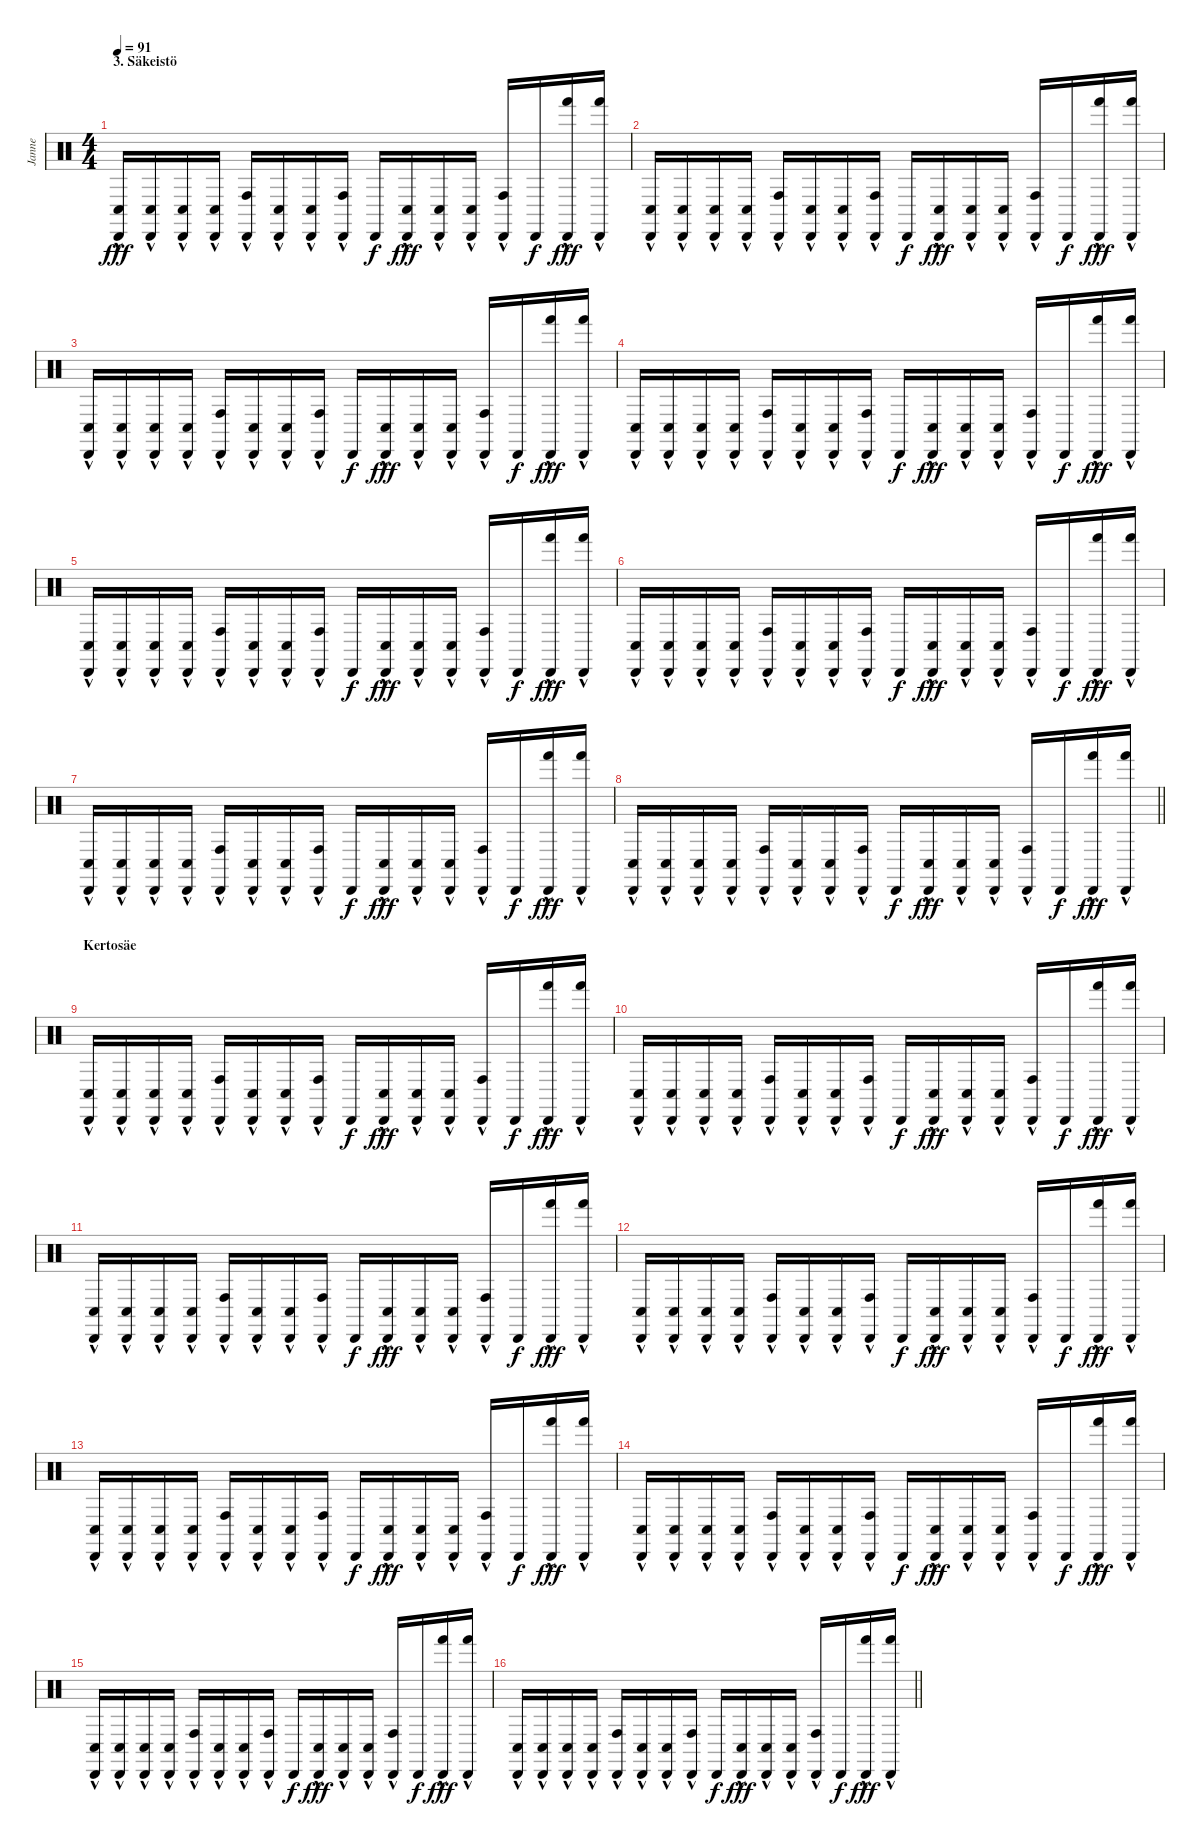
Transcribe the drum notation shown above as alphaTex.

\track ("Janne" "Janne") {instrument percussion}
\staff {score}
\articulation defaults
\ts (4 4)
\section ("" "3. Säkeistö")
\tempo 91
\clef neutral
\ks c
("Cabasa (hit)" "Conga low (hit)"{hac}).16{dy fff} ("Cabasa (hit)" "Conga low (hit)"{hac}).16 ("Cabasa (hit)" "Conga low (hit)"{hac}).16 ("Cabasa (hit)" "Conga low (hit)"{hac}).16 ("Cabasa (hit)" "Conga high (hit)"{hac}).16 ("Cabasa (hit)" "Conga low (hit)"{hac}).16 ("Cabasa (hit)" "Conga low (hit)"{hac}).16 ("Cabasa (hit)" "Conga high (hit)"{hac}).16 "Cabasa (hit)".16{dy f} ("Cabasa (hit)" "Conga low (hit)"{hac}).16{dy fff} ("Cabasa (hit)" "Conga low (hit)"{hac}).16 ("Cabasa (hit)" "Conga low (hit)"{hac}).16 ("Cabasa (hit)" "Conga high (hit)"{hac}).16 "Cabasa (hit)".16{dy f} ("Cabasa (hit)" "Hand (hit)"{hac}).16{dy fff} ("Cabasa (hit)" "Hand (hit)"{hac}).16 |
("Cabasa (hit)" "Conga low (hit)"{hac}).16 ("Cabasa (hit)" "Conga low (hit)"{hac}).16 ("Cabasa (hit)" "Conga low (hit)"{hac}).16 ("Cabasa (hit)" "Conga low (hit)"{hac}).16 ("Cabasa (hit)" "Conga high (hit)"{hac}).16 ("Cabasa (hit)" "Conga low (hit)"{hac}).16 ("Cabasa (hit)" "Conga low (hit)"{hac}).16 ("Cabasa (hit)" "Conga high (hit)"{hac}).16 "Cabasa (hit)".16{dy f} ("Cabasa (hit)" "Conga low (hit)"{hac}).16{dy fff} ("Cabasa (hit)" "Conga low (hit)"{hac}).16 ("Cabasa (hit)" "Conga low (hit)"{hac}).16 ("Cabasa (hit)" "Conga high (hit)"{hac}).16 "Cabasa (hit)".16{dy f} ("Cabasa (hit)" "Hand (hit)"{hac}).16{dy fff} ("Cabasa (hit)" "Hand (hit)"{hac}).16 |
("Cabasa (hit)" "Conga low (hit)"{hac}).16 ("Cabasa (hit)" "Conga low (hit)"{hac}).16 ("Cabasa (hit)" "Conga low (hit)"{hac}).16 ("Cabasa (hit)" "Conga low (hit)"{hac}).16 ("Cabasa (hit)" "Conga high (hit)"{hac}).16 ("Cabasa (hit)" "Conga low (hit)"{hac}).16 ("Cabasa (hit)" "Conga low (hit)"{hac}).16 ("Cabasa (hit)" "Conga high (hit)"{hac}).16 "Cabasa (hit)".16{dy f} ("Cabasa (hit)" "Conga low (hit)"{hac}).16{dy fff} ("Cabasa (hit)" "Conga low (hit)"{hac}).16 ("Cabasa (hit)" "Conga low (hit)"{hac}).16 ("Cabasa (hit)" "Conga high (hit)"{hac}).16 "Cabasa (hit)".16{dy f} ("Cabasa (hit)" "Hand (hit)"{hac}).16{dy fff} ("Cabasa (hit)" "Hand (hit)"{hac}).16 |
("Cabasa (hit)" "Conga low (hit)"{hac}).16 ("Cabasa (hit)" "Conga low (hit)"{hac}).16 ("Cabasa (hit)" "Conga low (hit)"{hac}).16 ("Cabasa (hit)" "Conga low (hit)"{hac}).16 ("Cabasa (hit)" "Conga high (hit)"{hac}).16 ("Cabasa (hit)" "Conga low (hit)"{hac}).16 ("Cabasa (hit)" "Conga low (hit)"{hac}).16 ("Cabasa (hit)" "Conga high (hit)"{hac}).16 "Cabasa (hit)".16{dy f} ("Cabasa (hit)" "Conga low (hit)"{hac}).16{dy fff} ("Cabasa (hit)" "Conga low (hit)"{hac}).16 ("Cabasa (hit)" "Conga low (hit)"{hac}).16 ("Cabasa (hit)" "Conga high (hit)"{hac}).16 "Cabasa (hit)".16{dy f} ("Cabasa (hit)" "Hand (hit)"{hac}).16{dy fff} ("Cabasa (hit)" "Hand (hit)"{hac}).16 |
("Cabasa (hit)" "Conga low (hit)"{hac}).16 ("Cabasa (hit)" "Conga low (hit)"{hac}).16 ("Cabasa (hit)" "Conga low (hit)"{hac}).16 ("Cabasa (hit)" "Conga low (hit)"{hac}).16 ("Cabasa (hit)" "Conga high (hit)"{hac}).16 ("Cabasa (hit)" "Conga low (hit)"{hac}).16 ("Cabasa (hit)" "Conga low (hit)"{hac}).16 ("Cabasa (hit)" "Conga high (hit)"{hac}).16 "Cabasa (hit)".16{dy f} ("Cabasa (hit)" "Conga low (hit)"{hac}).16{dy fff} ("Cabasa (hit)" "Conga low (hit)"{hac}).16 ("Cabasa (hit)" "Conga low (hit)"{hac}).16 ("Cabasa (hit)" "Conga high (hit)"{hac}).16 "Cabasa (hit)".16{dy f} ("Cabasa (hit)" "Hand (hit)"{hac}).16{dy fff} ("Cabasa (hit)" "Hand (hit)"{hac}).16 |
("Cabasa (hit)" "Conga low (hit)"{hac}).16 ("Cabasa (hit)" "Conga low (hit)"{hac}).16 ("Cabasa (hit)" "Conga low (hit)"{hac}).16 ("Cabasa (hit)" "Conga low (hit)"{hac}).16 ("Cabasa (hit)" "Conga high (hit)"{hac}).16 ("Cabasa (hit)" "Conga low (hit)"{hac}).16 ("Cabasa (hit)" "Conga low (hit)"{hac}).16 ("Cabasa (hit)" "Conga high (hit)"{hac}).16 "Cabasa (hit)".16{dy f} ("Cabasa (hit)" "Conga low (hit)"{hac}).16{dy fff} ("Cabasa (hit)" "Conga low (hit)"{hac}).16 ("Cabasa (hit)" "Conga low (hit)"{hac}).16 ("Cabasa (hit)" "Conga high (hit)"{hac}).16 "Cabasa (hit)".16{dy f} ("Cabasa (hit)" "Hand (hit)"{hac}).16{dy fff} ("Cabasa (hit)" "Hand (hit)"{hac}).16 |
("Cabasa (hit)" "Conga low (hit)"{hac}).16 ("Cabasa (hit)" "Conga low (hit)"{hac}).16 ("Cabasa (hit)" "Conga low (hit)"{hac}).16 ("Cabasa (hit)" "Conga low (hit)"{hac}).16 ("Cabasa (hit)" "Conga high (hit)"{hac}).16 ("Cabasa (hit)" "Conga low (hit)"{hac}).16 ("Cabasa (hit)" "Conga low (hit)"{hac}).16 ("Cabasa (hit)" "Conga high (hit)"{hac}).16 "Cabasa (hit)".16{dy f} ("Cabasa (hit)" "Conga low (hit)"{hac}).16{dy fff} ("Cabasa (hit)" "Conga low (hit)"{hac}).16 ("Cabasa (hit)" "Conga low (hit)"{hac}).16 ("Cabasa (hit)" "Conga high (hit)"{hac}).16 "Cabasa (hit)".16{dy f} ("Cabasa (hit)" "Hand (hit)"{hac}).16{dy fff} ("Cabasa (hit)" "Hand (hit)"{hac}).16 |
\barLineRight lightlight
("Cabasa (hit)" "Conga low (hit)"{hac}).16 ("Cabasa (hit)" "Conga low (hit)"{hac}).16 ("Cabasa (hit)" "Conga low (hit)"{hac}).16 ("Cabasa (hit)" "Conga low (hit)"{hac}).16 ("Cabasa (hit)" "Conga high (hit)"{hac}).16 ("Cabasa (hit)" "Conga low (hit)"{hac}).16 ("Cabasa (hit)" "Conga low (hit)"{hac}).16 ("Cabasa (hit)" "Conga high (hit)"{hac}).16 "Cabasa (hit)".16{dy f} ("Cabasa (hit)" "Conga low (hit)"{hac}).16{dy fff} ("Cabasa (hit)" "Conga low (hit)"{hac}).16 ("Cabasa (hit)" "Conga low (hit)"{hac}).16 ("Cabasa (hit)" "Conga high (hit)"{hac}).16 "Cabasa (hit)".16{dy f} ("Cabasa (hit)" "Hand (hit)"{hac}).16{dy fff} ("Cabasa (hit)" "Hand (hit)"{hac}).16 |
\section ("" "Kertosäe")
("Cabasa (hit)" "Conga low (hit)"{hac}).16 ("Cabasa (hit)" "Conga low (hit)"{hac}).16 ("Cabasa (hit)" "Conga low (hit)"{hac}).16 ("Cabasa (hit)" "Conga low (hit)"{hac}).16 ("Cabasa (hit)" "Conga high (hit)"{hac}).16 ("Cabasa (hit)" "Conga low (hit)"{hac}).16 ("Cabasa (hit)" "Conga low (hit)"{hac}).16 ("Cabasa (hit)" "Conga high (hit)"{hac}).16 "Cabasa (hit)".16{dy f} ("Cabasa (hit)" "Conga low (hit)"{hac}).16{dy fff} ("Cabasa (hit)" "Conga low (hit)"{hac}).16 ("Cabasa (hit)" "Conga low (hit)"{hac}).16 ("Cabasa (hit)" "Conga high (hit)"{hac}).16 "Cabasa (hit)".16{dy f} ("Cabasa (hit)" "Hand (hit)"{hac}).16{dy fff} ("Cabasa (hit)" "Hand (hit)"{hac}).16 |
("Cabasa (hit)" "Conga low (hit)"{hac}).16 ("Cabasa (hit)" "Conga low (hit)"{hac}).16 ("Cabasa (hit)" "Conga low (hit)"{hac}).16 ("Cabasa (hit)" "Conga low (hit)"{hac}).16 ("Cabasa (hit)" "Conga high (hit)"{hac}).16 ("Cabasa (hit)" "Conga low (hit)"{hac}).16 ("Cabasa (hit)" "Conga low (hit)"{hac}).16 ("Cabasa (hit)" "Conga high (hit)"{hac}).16 "Cabasa (hit)".16{dy f} ("Cabasa (hit)" "Conga low (hit)"{hac}).16{dy fff} ("Cabasa (hit)" "Conga low (hit)"{hac}).16 ("Cabasa (hit)" "Conga low (hit)"{hac}).16 ("Cabasa (hit)" "Conga high (hit)"{hac}).16 "Cabasa (hit)".16{dy f} ("Cabasa (hit)" "Hand (hit)"{hac}).16{dy fff} ("Cabasa (hit)" "Hand (hit)"{hac}).16 |
("Cabasa (hit)" "Conga low (hit)"{hac}).16 ("Cabasa (hit)" "Conga low (hit)"{hac}).16 ("Cabasa (hit)" "Conga low (hit)"{hac}).16 ("Cabasa (hit)" "Conga low (hit)"{hac}).16 ("Cabasa (hit)" "Conga high (hit)"{hac}).16 ("Cabasa (hit)" "Conga low (hit)"{hac}).16 ("Cabasa (hit)" "Conga low (hit)"{hac}).16 ("Cabasa (hit)" "Conga high (hit)"{hac}).16 "Cabasa (hit)".16{dy f} ("Cabasa (hit)" "Conga low (hit)"{hac}).16{dy fff} ("Cabasa (hit)" "Conga low (hit)"{hac}).16 ("Cabasa (hit)" "Conga low (hit)"{hac}).16 ("Cabasa (hit)" "Conga high (hit)"{hac}).16 "Cabasa (hit)".16{dy f} ("Cabasa (hit)" "Hand (hit)"{hac}).16{dy fff} ("Cabasa (hit)" "Hand (hit)"{hac}).16 |
("Cabasa (hit)" "Conga low (hit)"{hac}).16 ("Cabasa (hit)" "Conga low (hit)"{hac}).16 ("Cabasa (hit)" "Conga low (hit)"{hac}).16 ("Cabasa (hit)" "Conga low (hit)"{hac}).16 ("Cabasa (hit)" "Conga high (hit)"{hac}).16 ("Cabasa (hit)" "Conga low (hit)"{hac}).16 ("Cabasa (hit)" "Conga low (hit)"{hac}).16 ("Cabasa (hit)" "Conga high (hit)"{hac}).16 "Cabasa (hit)".16{dy f} ("Cabasa (hit)" "Conga low (hit)"{hac}).16{dy fff} ("Cabasa (hit)" "Conga low (hit)"{hac}).16 ("Cabasa (hit)" "Conga low (hit)"{hac}).16 ("Cabasa (hit)" "Conga high (hit)"{hac}).16 "Cabasa (hit)".16{dy f} ("Cabasa (hit)" "Hand (hit)"{hac}).16{dy fff} ("Cabasa (hit)" "Hand (hit)"{hac}).16 |
("Cabasa (hit)" "Conga low (hit)"{hac}).16 ("Cabasa (hit)" "Conga low (hit)"{hac}).16 ("Cabasa (hit)" "Conga low (hit)"{hac}).16 ("Cabasa (hit)" "Conga low (hit)"{hac}).16 ("Cabasa (hit)" "Conga high (hit)"{hac}).16 ("Cabasa (hit)" "Conga low (hit)"{hac}).16 ("Cabasa (hit)" "Conga low (hit)"{hac}).16 ("Cabasa (hit)" "Conga high (hit)"{hac}).16 "Cabasa (hit)".16{dy f} ("Cabasa (hit)" "Conga low (hit)"{hac}).16{dy fff} ("Cabasa (hit)" "Conga low (hit)"{hac}).16 ("Cabasa (hit)" "Conga low (hit)"{hac}).16 ("Cabasa (hit)" "Conga high (hit)"{hac}).16 "Cabasa (hit)".16{dy f} ("Cabasa (hit)" "Hand (hit)"{hac}).16{dy fff} ("Cabasa (hit)" "Hand (hit)"{hac}).16 |
("Cabasa (hit)" "Conga low (hit)"{hac}).16 ("Cabasa (hit)" "Conga low (hit)"{hac}).16 ("Cabasa (hit)" "Conga low (hit)"{hac}).16 ("Cabasa (hit)" "Conga low (hit)"{hac}).16 ("Cabasa (hit)" "Conga high (hit)"{hac}).16 ("Cabasa (hit)" "Conga low (hit)"{hac}).16 ("Cabasa (hit)" "Conga low (hit)"{hac}).16 ("Cabasa (hit)" "Conga high (hit)"{hac}).16 "Cabasa (hit)".16{dy f} ("Cabasa (hit)" "Conga low (hit)"{hac}).16{dy fff} ("Cabasa (hit)" "Conga low (hit)"{hac}).16 ("Cabasa (hit)" "Conga low (hit)"{hac}).16 ("Cabasa (hit)" "Conga high (hit)"{hac}).16 "Cabasa (hit)".16{dy f} ("Cabasa (hit)" "Hand (hit)"{hac}).16{dy fff} ("Cabasa (hit)" "Hand (hit)"{hac}).16 |
("Cabasa (hit)" "Conga low (hit)"{hac}).16 ("Cabasa (hit)" "Conga low (hit)"{hac}).16 ("Cabasa (hit)" "Conga low (hit)"{hac}).16 ("Cabasa (hit)" "Conga low (hit)"{hac}).16 ("Cabasa (hit)" "Conga high (hit)"{hac}).16 ("Cabasa (hit)" "Conga low (hit)"{hac}).16 ("Cabasa (hit)" "Conga low (hit)"{hac}).16 ("Cabasa (hit)" "Conga high (hit)"{hac}).16 "Cabasa (hit)".16{dy f} ("Cabasa (hit)" "Conga low (hit)"{hac}).16{dy fff} ("Cabasa (hit)" "Conga low (hit)"{hac}).16 ("Cabasa (hit)" "Conga low (hit)"{hac}).16 ("Cabasa (hit)" "Conga high (hit)"{hac}).16 "Cabasa (hit)".16{dy f} ("Cabasa (hit)" "Hand (hit)"{hac}).16{dy fff} ("Cabasa (hit)" "Hand (hit)"{hac}).16 |
\barLineRight lightlight
("Cabasa (hit)" "Conga low (hit)"{hac}).16 ("Cabasa (hit)" "Conga low (hit)"{hac}).16 ("Cabasa (hit)" "Conga low (hit)"{hac}).16 ("Cabasa (hit)" "Conga low (hit)"{hac}).16 ("Cabasa (hit)" "Conga high (hit)"{hac}).16 ("Cabasa (hit)" "Conga low (hit)"{hac}).16 ("Cabasa (hit)" "Conga low (hit)"{hac}).16 ("Cabasa (hit)" "Conga high (hit)"{hac}).16 "Cabasa (hit)".16{dy f} ("Cabasa (hit)" "Conga low (hit)"{hac}).16{dy fff} ("Cabasa (hit)" "Conga low (hit)"{hac}).16 ("Cabasa (hit)" "Conga low (hit)"{hac}).16 ("Cabasa (hit)" "Conga high (hit)"{hac}).16 "Cabasa (hit)".16{dy f} ("Cabasa (hit)" "Hand (hit)"{hac}).16{dy fff} ("Cabasa (hit)" "Hand (hit)"{hac}).16
